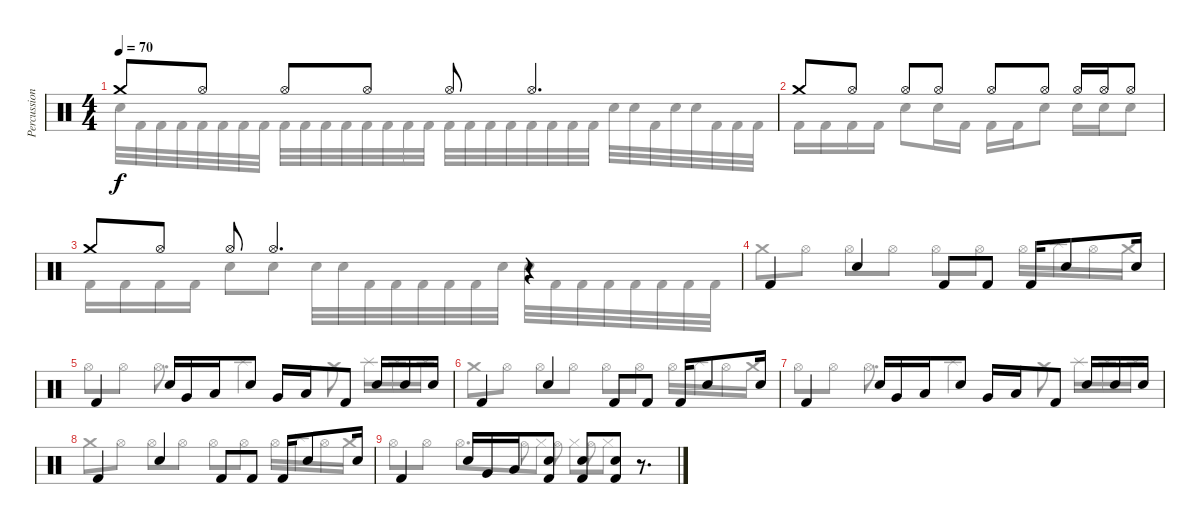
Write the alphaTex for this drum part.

\track ("Percussion" "Percussion") {instrument percussion}
\staff {score}
\articulation defaults
\voice
\ts (4 4)
\tempo 70
\clef neutral
\ks c "Crash medium (hit)".8{dy f} "Hi-Hat (open)".8 "Hi-Hat (open)".8 "Hi-Hat (open)".8 "Hi-Hat (open)".8 "Hi-Hat (open)".4{d}
|
"Crash medium (hit)".8 "Hi-Hat (open)".8 "Hi-Hat (open)".8 "Hi-Hat (open)".8 "Hi-Hat (open)".8 "Hi-Hat (open)".8 "Hi-Hat (open)".16 "Hi-Hat (open)".16 "Hi-Hat (open)".8 |
"Crash medium (hit)".8 "Hi-Hat (open)".8 "Hi-Hat (open)".8 "Hi-Hat (open)".4{d} r.4 |
"Kick (hit) 2".4 "Snare (hit) 2".4 "Kick (hit) 2".8 "Kick (hit) 2".8 "Kick (hit) 2".16 "Snare (hit) 2".8 "Snare (hit) 2".16 |
"Kick (hit) 2".4 "Snare (hit) 2".16 "Very Low Tom (hit)".16 "Low Floor Tom (hit)".16 "Snare (hit) 2".8 "Very Low Tom (hit)".16 "Low Floor Tom (hit)".16 "Kick (hit) 2".8 "Snare (hit) 2".16 "Snare (hit) 2".16 "Snare (hit) 2".16 |
"Kick (hit) 2".4 "Snare (hit) 2".4 "Kick (hit) 2".8 "Kick (hit) 2".8 "Kick (hit) 2".16 "Snare (hit) 2".8 "Snare (hit) 2".16 |
"Kick (hit) 2".4 "Snare (hit) 2".16 "Very Low Tom (hit)".16 "Low Floor Tom (hit)".16 "Snare (hit) 2".8 "Very Low Tom (hit)".16 "Low Floor Tom (hit)".16 "Kick (hit) 2".8 "Snare (hit) 2".16 "Snare (hit) 2".16 "Snare (hit) 2".16 |
"Kick (hit) 2".4 "Snare (hit) 2".4 "Kick (hit) 2".8 "Kick (hit) 2".8 "Kick (hit) 2".16 "Snare (hit) 2".8 "Snare (hit) 2".16 |
"Kick (hit) 2".4 "Snare (hit) 2".16 "Very Low Tom (hit)".16 "Low Floor Tom (hit)".16 ("Snare (hit) 2" "Kick (hit) 2").8 ("Snare (hit) 2" "Kick (hit) 2").8 ("Snare (hit) 2" "Kick (hit) 2").8 r.8{d} |
\voice
\clef neutral
\ottava regular
\simile none
\ks c "Snare (hit) 2".32{dy f} "Kick (hit) 2".32 "Kick (hit) 2".32 "Kick (hit) 2".32 "Kick (hit) 2".32 "Kick (hit) 2".32 "Kick (hit) 2".32 "Kick (hit) 2".32 "Kick (hit) 2".32 "Kick (hit) 2".32 "Kick (hit) 2".32 "Kick (hit) 2".32 "Kick (hit) 2".32 "Kick (hit) 2".32 "Kick (hit) 2".32 "Kick (hit) 2".32 "Kick (hit) 2".32 "Kick (hit) 2".32 "Kick (hit) 2".32 "Kick (hit) 2".32 "Kick (hit) 2".32 "Kick (hit) 2".32 "Kick (hit) 2".32 "Kick (hit) 2".32 "Snare (hit) 2".32 "Snare (hit) 2".32 "Kick (hit) 2".32 "Snare (hit) 2".32 "Snare (hit) 2".32 "Kick (hit) 2".32 "Kick (hit) 2".32 "Kick (hit) 2".32
|
"Kick (hit) 2".16 "Kick (hit) 2".16 "Kick (hit) 2".16 "Kick (hit) 2".16 "Snare (hit) 2".8 "Snare (hit) 2".16 "Kick (hit) 2".16 "Kick (hit) 2".16 "Kick (hit) 2".16 "Snare (hit) 2".8 "Snare (hit) 2".16 "Snare (hit) 2".16 "Snare (hit) 2".8 |
"Kick (hit) 2".16 "Kick (hit) 2".16 "Kick (hit) 2".16 "Kick (hit) 2".16 "Snare (hit) 2".8 "Snare (hit) 2".8 "Snare (hit) 2".32 "Snare (hit) 2".32 "Kick (hit) 2".32 "Kick (hit) 2".32 "Kick (hit) 2".32 "Kick (hit) 2".32 "Kick (hit) 2".32 "Snare (hit) 2".32 "Snare (hit) 2".32 "Kick (hit) 2".32 "Kick (hit) 2".32 "Kick (hit) 2".32 "Kick (hit) 2".32 "Kick (hit) 2".32 "Kick (hit) 2".32 "Kick (hit) 2".32 |
"Crash medium (hit)".8 "Hi-Hat (open)".8 "Hi-Hat (open)".8 "Hi-Hat (open)".8 "Hi-Hat (open)".8 "Hi-Hat (open)".8 "Hi-Hat (open)".16 "Splash (hit)".16 "Hi-Hat (open)".16 "Crash medium (hit)".16 |
"Hi-Hat (open)".8 "Hi-Hat (open)".8 "Hi-Hat (open)".8{d} "Splash (hit)".4 "Crash medium (hit)".8 "Splash (hit)".16 "Splash (hit)".16 "Splash (hit)".16 |
"Crash medium (hit)".8 "Hi-Hat (open)".8 "Hi-Hat (open)".8 "Hi-Hat (open)".8 "Hi-Hat (open)".8 "Hi-Hat (open)".8 "Hi-Hat (open)".16 "Splash (hit)".16 "Hi-Hat (open)".16 "Crash medium (hit)".16 |
"Hi-Hat (open)".8 "Hi-Hat (open)".8 "Hi-Hat (open)".8{d} "Splash (hit)".4 "Crash medium (hit)".8 "Splash (hit)".16 "Splash (hit)".16 "Splash (hit)".16 |
"Crash medium (hit)".8 "Hi-Hat (open)".8 "Hi-Hat (open)".8 "Hi-Hat (open)".8 "Hi-Hat (open)".8 "Hi-Hat (open)".8 "Hi-Hat (open)".16 "Splash (hit)".16 "Hi-Hat (open)".16 "Crash medium (hit)".16 |
"Hi-Hat (open)".8 "Hi-Hat (open)".8 "Hi-Hat (open)".8{d} "Hi-Hat (open)".8{gr onbeat} "Hi-Hat (closed)".8 "Hi-Hat (open)".8{gr onbeat} "Hi-Hat (closed)".8 "Hi-Hat (open)".8{gr onbeat} "Hi-Hat (closed)".8 r.8{d} |
